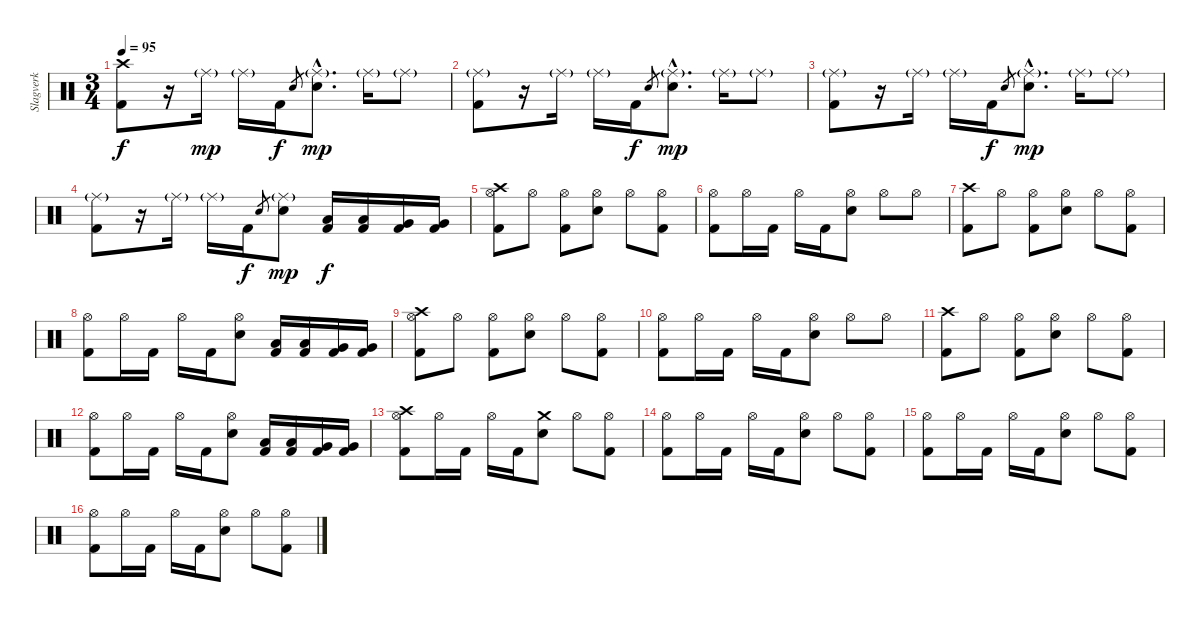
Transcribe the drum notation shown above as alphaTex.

\track ("Slagverk" "Slagverk") {instrument percussion}
\staff {score}
\articulation defaults
\ts (3 4)
\tempo 95
\clef neutral
\ks c
("Crash high (hit)" "Kick (hit) 2").8{dy f} r.16 "Ride (middle)"{g}.16{dy mp} "Ride (middle)"{g}.16 "Kick (hit) 2".16{dy f} "Electric Snare (hit)".8{gr} ("Ride (middle)"{g hac} "Electric Snare (hit)"{hac}).8{d dy mp} "Ride (middle)"{g}.16 "Ride (middle)"{g}.8 |
("Ride (middle)"{g} "Kick (hit) 2").8 r.16 "Ride (middle)"{g}.16 "Ride (middle)"{g}.16 "Kick (hit) 2".16{dy f} "Electric Snare (hit)".8{gr} ("Ride (middle)"{g hac} "Electric Snare (hit)"{hac}).8{d dy mp} "Ride (middle)"{g}.16 "Ride (middle)"{g}.8 |
("Ride (middle)"{g} "Kick (hit) 2").8 r.16 "Ride (middle)"{g}.16 "Ride (middle)"{g}.16 "Kick (hit) 2".16{dy f} "Electric Snare (hit)".8{gr} ("Ride (middle)"{g hac} "Electric Snare (hit)"{hac}).8{d dy mp} "Ride (middle)"{g}.16 "Ride (middle)"{g}.8 |
("Ride (middle)"{g} "Kick (hit) 2").8 r.16 "Ride (middle)"{g}.16 "Ride (middle)"{g}.16 "Kick (hit) 2".16{dy f} "Electric Snare (hit)".8{gr} ("Ride (middle)"{g} "Electric Snare (hit)").8{dy mp} ("Low Tom (hit)" "Kick (hit) 2").16{dy f} ("Low Tom (hit)" "Kick (hit) 2").16 ("Very Low Tom (hit)" "Kick (hit) 2").16 ("Very Low Tom (hit)" "Kick (hit) 2").16 |
("Crash high (hit)" "Hi-Hat (open)" "Kick (hit) 2").8 "Hi-Hat (open)".8 ("Hi-Hat (open)" "Kick (hit) 2").8 ("Hi-Hat (open)" "Electric Snare (hit)").8 "Hi-Hat (open)".8 ("Hi-Hat (open)" "Kick (hit) 2").8 |
("Hi-Hat (open)" "Kick (hit) 2").8 "Hi-Hat (open)".16 "Kick (hit) 2".16 "Hi-Hat (open)".16 "Kick (hit) 2".16 ("Hi-Hat (open)" "Electric Snare (hit)").8 "Hi-Hat (open)".8 "Hi-Hat (open)".8 |
("Crash high (hit)" "Kick (hit) 2").8 "Hi-Hat (open)".8 ("Hi-Hat (open)" "Kick (hit) 2").8 ("Hi-Hat (open)" "Electric Snare (hit)").8 "Hi-Hat (open)".8 ("Hi-Hat (open)" "Kick (hit) 2").8 |
("Hi-Hat (open)" "Kick (hit) 2").8 "Hi-Hat (open)".16 "Kick (hit) 2".16 "Hi-Hat (open)".16 "Kick (hit) 2".16 ("Hi-Hat (open)" "Electric Snare (hit)").8 ("Low Tom (hit)" "Kick (hit) 2").16 ("Low Tom (hit)" "Kick (hit) 2").16 ("Very Low Tom (hit)" "Kick (hit) 2").16 ("Very Low Tom (hit)" "Kick (hit) 2").16 |
("Crash high (hit)" "Hi-Hat (open)" "Kick (hit) 2").8 "Hi-Hat (open)".8 ("Hi-Hat (open)" "Kick (hit) 2").8 ("Hi-Hat (open)" "Electric Snare (hit)").8 "Hi-Hat (open)".8 ("Hi-Hat (open)" "Kick (hit) 2").8 |
("Hi-Hat (open)" "Kick (hit) 2").8 "Hi-Hat (open)".16 "Kick (hit) 2".16 "Hi-Hat (open)".16 "Kick (hit) 2".16 ("Hi-Hat (open)" "Electric Snare (hit)").8 "Hi-Hat (open)".8 "Hi-Hat (open)".8 |
("Crash high (hit)" "Kick (hit) 2").8 "Hi-Hat (open)".8 ("Hi-Hat (open)" "Kick (hit) 2").8 ("Hi-Hat (open)" "Electric Snare (hit)").8 "Hi-Hat (open)".8 ("Hi-Hat (open)" "Kick (hit) 2").8 |
("Hi-Hat (open)" "Kick (hit) 2").8 "Hi-Hat (open)".16 "Kick (hit) 2".16 "Hi-Hat (open)".16 "Kick (hit) 2".16 ("Hi-Hat (open)" "Electric Snare (hit)").8 ("Low Tom (hit)" "Kick (hit) 2").16 ("Low Tom (hit)" "Kick (hit) 2").16 ("Very Low Tom (hit)" "Kick (hit) 2").16 ("Very Low Tom (hit)" "Kick (hit) 2").16 |
("Crash high (hit)" "Hi-Hat (open)" "Kick (hit) 2").8 "Hi-Hat (open)".16 "Kick (hit) 2".16 "Hi-Hat (open)".16 "Kick (hit) 2".16 ("Crash medium (hit)" "Electric Snare (hit)").8 "Hi-Hat (open)".8 ("Hi-Hat (open)" "Kick (hit) 2").8 |
("Hi-Hat (open)" "Kick (hit) 2").8 "Hi-Hat (open)".16 "Kick (hit) 2".16 "Hi-Hat (open)".16 "Kick (hit) 2".16 ("Hi-Hat (open)" "Electric Snare (hit)").8 "Hi-Hat (open)".8 ("Hi-Hat (open)" "Kick (hit) 2").8 |
("Hi-Hat (open)" "Kick (hit) 2").8 "Hi-Hat (open)".16 "Kick (hit) 2".16 "Hi-Hat (open)".16 "Kick (hit) 2".16 ("Hi-Hat (open)" "Electric Snare (hit)").8 "Hi-Hat (open)".8 ("Hi-Hat (open)" "Kick (hit) 2").8 |
("Hi-Hat (open)" "Kick (hit) 2").8 "Hi-Hat (open)".16 "Kick (hit) 2".16 "Hi-Hat (open)".16 "Kick (hit) 2".16 ("Hi-Hat (open)" "Electric Snare (hit)").8 "Hi-Hat (open)".8 ("Hi-Hat (open)" "Kick (hit) 2").8
